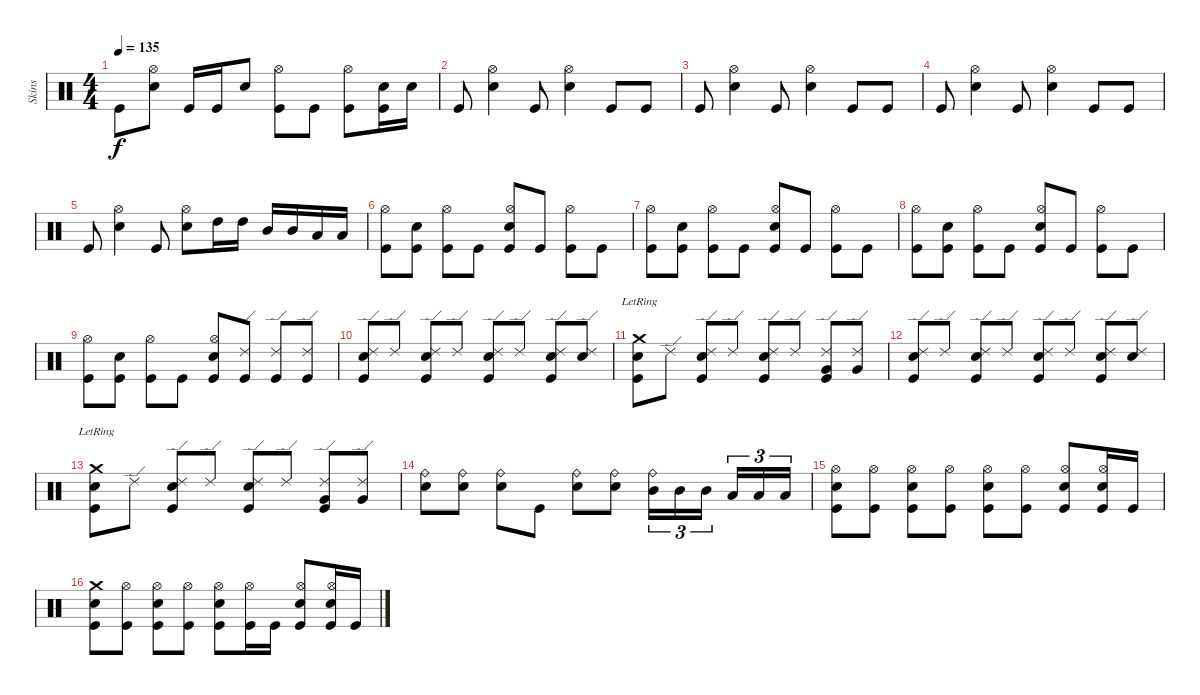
\track ("Skins" "Skins") {instrument percussion}
\staff {score}
\articulation defaults
\ts (4 4)
\tempo 135
\clef neutral
\ks c "Kick (hit)".8{dy f}
("Hi-Hat (open)" "Electric Snare (hit)").8 "Kick (hit)".16 "Kick (hit)".16 "Electric Snare (hit)".8 ("Hi-Hat (open)" "Kick (hit)").8 "Kick (hit)".8 ("Hi-Hat (open)" "Kick (hit)").8 ("Electric Snare (hit)" "Kick (hit)").16 "Electric Snare (hit)".16 |
"Kick (hit)".8 ("Hi-Hat (open)" "Electric Snare (hit)").4 "Kick (hit)".8 ("Hi-Hat (open)" "Electric Snare (hit)").4 "Kick (hit)".8 "Kick (hit)".8 |
"Kick (hit)".8 ("Hi-Hat (open)" "Electric Snare (hit)").4 "Kick (hit)".8 ("Hi-Hat (open)" "Electric Snare (hit)").4 "Kick (hit)".8 "Kick (hit)".8 |
"Kick (hit)".8 ("Hi-Hat (open)" "Electric Snare (hit)").4 "Kick (hit)".8 ("Hi-Hat (open)" "Electric Snare (hit)").4 "Kick (hit)".8 "Kick (hit)".8 |
"Kick (hit)".8 ("Hi-Hat (open)" "Electric Snare (hit)").4 "Kick (hit)".8 ("Hi-Hat (open)" "Electric Snare (hit)").8 "High Tom (hit)".16 "High Tom (hit)".16 "Mid Tom (hit)".16 "Mid Tom (hit)".16 "Low Tom (hit)".16 "Low Tom (hit)".16 |
("Hi-Hat (open)" "Kick (hit)").8 ("Electric Snare (hit)" "Kick (hit)").8 ("Hi-Hat (open)" "Kick (hit)").8 "Kick (hit)".8 ("Hi-Hat (open)" "Electric Snare (hit)" "Kick (hit)").8 "Kick (hit)".8 ("Hi-Hat (open)" "Kick (hit)").8 "Kick (hit)".8 |
("Hi-Hat (open)" "Kick (hit)").8 ("Electric Snare (hit)" "Kick (hit)").8 ("Hi-Hat (open)" "Kick (hit)").8 "Kick (hit)".8 ("Hi-Hat (open)" "Electric Snare (hit)" "Kick (hit)").8 "Kick (hit)".8 ("Hi-Hat (open)" "Kick (hit)").8 "Kick (hit)".8 |
("Hi-Hat (open)" "Kick (hit)").8 ("Electric Snare (hit)" "Kick (hit)").8 ("Hi-Hat (open)" "Kick (hit)").8 "Kick (hit)".8 ("Hi-Hat (open)" "Electric Snare (hit)" "Kick (hit)").8 "Kick (hit)".8 ("Hi-Hat (open)" "Kick (hit)").8 "Kick (hit)".8 |
("Hi-Hat (open)" "Kick (hit)").8 ("Electric Snare (hit)" "Kick (hit)").8 ("Hi-Hat (open)" "Kick (hit)").8 "Kick (hit)".8 ("Hi-Hat (open)" "Electric Snare (hit)" "Kick (hit)").8 ("Ride (edge) 2" "Kick (hit)").8 ("Ride (edge) 2" "Kick (hit)").8 ("Ride (edge) 2" "Kick (hit)").8 |
("Ride (edge) 2" "Electric Snare (hit)" "Kick (hit)").8 "Ride (edge) 2".8 ("Ride (edge) 2" "Electric Snare (hit)" "Kick (hit)").8 "Ride (edge) 2".8 ("Ride (edge) 2" "Electric Snare (hit)" "Kick (hit)").8 "Ride (edge) 2".8 ("Ride (edge) 2" "Snare (hit) 2" "Kick (hit)").8 ("Ride (edge) 2" "Snare (hit) 2").8 |
("Crash medium (hit)"{lr} "Electric Snare (hit)" "Kick (hit)").8 "Ride (edge) 2".8 ("Ride (edge) 2" "Electric Snare (hit)" "Kick (hit)").8 "Ride (edge) 2".8 ("Ride (edge) 2" "Electric Snare (hit)" "Kick (hit)").8 "Ride (edge) 2".8 ("Ride (edge) 2" "Very Low Tom (hit)" "Kick (hit)").8 ("Ride (edge) 2" "Very Low Tom (hit)").8 |
("Ride (edge) 2" "Electric Snare (hit)" "Kick (hit)").8 "Ride (edge) 2".8 ("Ride (edge) 2" "Electric Snare (hit)" "Kick (hit)").8 "Ride (edge) 2".8 ("Ride (edge) 2" "Electric Snare (hit)" "Kick (hit)").8 "Ride (edge) 2".8 ("Ride (edge) 2" "Snare (hit) 2" "Kick (hit)").8 ("Ride (edge) 2" "Snare (hit) 2").8 |
("Crash medium (hit)"{lr} "Electric Snare (hit)" "Kick (hit)").8 "Ride (edge) 2".8 ("Ride (edge) 2" "Electric Snare (hit)" "Kick (hit)").8 "Ride (edge) 2".8 ("Ride (edge) 2" "Electric Snare (hit)" "Kick (hit)").8 "Ride (edge) 2".8 ("Ride (edge) 2" "Very Low Tom (hit)" "Kick (hit)").8 ("Ride (edge) 2" "Very Low Tom (hit)").8 |
("Ride (bell)" "Snare (hit) 2").8 ("Ride (bell)" "Snare (hit) 2").8 ("Ride (bell)" "Snare (hit) 2").8 "Kick (hit)".8 ("Ride (bell)" "Snare (hit) 2").8 ("Ride (bell)" "Electric Snare (hit)").8 ("Ride (bell)" "Mid Tom (hit)").16{tu (3 2)} "Mid Tom (hit)".16{tu (3 2)} "Mid Tom (hit)".16{tu (3 2)} "Low Tom (hit)".16{tu (3 2)} "Low Tom (hit)".16{tu (3 2)} "Low Tom (hit)".16{tu (3 2)} |
("Hi-Hat (open)" "Snare (hit) 2" "Kick (hit)").8 ("Hi-Hat (open)" "Kick (hit)").8 ("Hi-Hat (open)" "Snare (hit) 2" "Kick (hit)").8 ("Hi-Hat (open)" "Kick (hit)").8 ("Hi-Hat (open)" "Snare (hit) 2" "Kick (hit)").8 ("Hi-Hat (open)" "Kick (hit)").8 ("Hi-Hat (open)" "Electric Snare (hit)" "Kick (hit)").8 ("Hi-Hat (open)" "Electric Snare (hit)" "Kick (hit)").16 "Kick (hit)".16 |
("Crash medium (hit)" "Snare (hit) 2" "Kick (hit)").8 ("Hi-Hat (open)" "Kick (hit)").8 ("Hi-Hat (open)" "Snare (hit) 2" "Kick (hit)").8 ("Hi-Hat (open)" "Kick (hit)").8 ("Hi-Hat (open)" "Snare (hit) 2" "Kick (hit)").8 ("Hi-Hat (open)" "Kick (hit)").16 "Kick (hit)".16 ("Hi-Hat (open)" "Electric Snare (hit)" "Kick (hit)").8 ("Hi-Hat (open)" "Electric Snare (hit)" "Kick (hit)").16 "Kick (hit)".16
